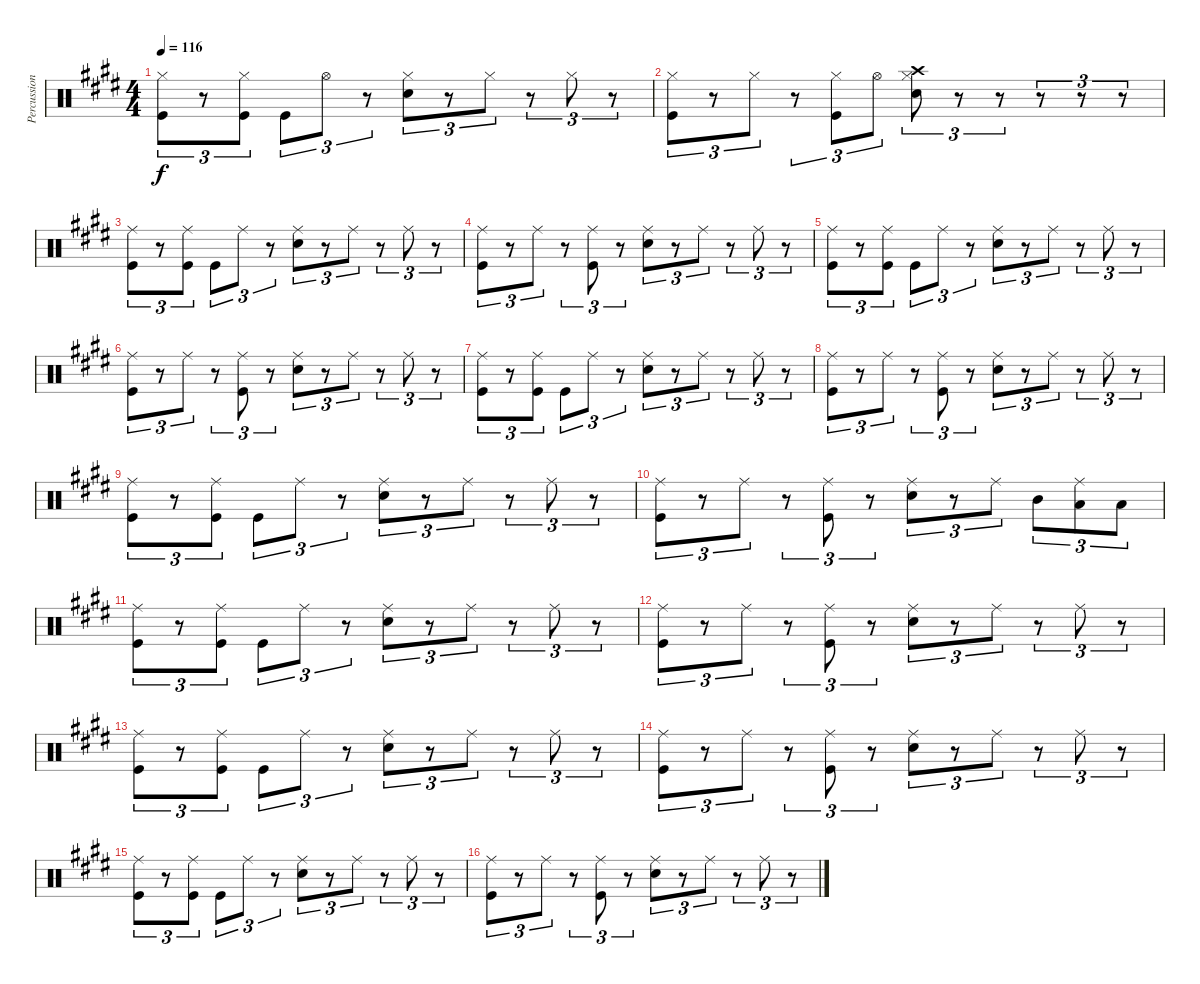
\track ("Percussion" "Percussion") {instrument percussion}
\staff {score}
\articulation defaults
\ts (4 4)
\tempo 116
\clef neutral
\ks c#minor
("Hi-Hat (closed)" "Kick (hit)").8{tu (3 2) dy f} r.8{tu (3 2)} ("Hi-Hat (closed)" "Kick (hit)").8{tu (3 2)} "Kick (hit)".8{tu (3 2)} "Hi-Hat (open)".8{tu (3 2)} r.8{tu (3 2)} ("Snare (hit) 2" "Hi-Hat (closed)").8{tu (3 2)} r.8{tu (3 2)} "Hi-Hat (closed)".8{tu (3 2)} r.8{tu (3 2)} "Hi-Hat (closed)".8{tu (3 2)} r.8{tu (3 2)} |
("Hi-Hat (closed)" "Kick (hit)").8{tu (3 2)} r.8{tu (3 2)} "Hi-Hat (closed)".8{tu (3 2)} r.8{tu (3 2)} ("Hi-Hat (closed)" "Kick (hit)").8{tu (3 2)} "Hi-Hat (open)".8{tu (3 2)} ("Crash high (hit)" "Snare (hit) 2" "Hi-Hat (closed)").8{tu (3 2)} r.8{tu (3 2)} r.8{tu (3 2)} r.8{tu (3 2)} r.8{tu (3 2)} r.8{tu (3 2)} |
("Ride (middle)" "Kick (hit)").8{tu (3 2)} r.8{tu (3 2)} ("Ride (middle)" "Kick (hit)").8{tu (3 2)} "Kick (hit)".8{tu (3 2)} "Ride (middle)".8{tu (3 2)} r.8{tu (3 2)} ("Snare (hit) 2" "Ride (middle)").8{tu (3 2)} r.8{tu (3 2)} "Ride (middle)".8{tu (3 2)} r.8{tu (3 2)} "Ride (middle)".8{tu (3 2)} r.8{tu (3 2)} |
("Ride (middle)" "Kick (hit)").8{tu (3 2)} r.8{tu (3 2)} "Ride (middle)".8{tu (3 2)} r.8{tu (3 2)} ("Ride (middle)" "Kick (hit)").8{tu (3 2)} r.8{tu (3 2)} ("Snare (hit) 2" "Ride (middle)").8{tu (3 2)} r.8{tu (3 2)} "Ride (middle)".8{tu (3 2)} r.8{tu (3 2)} "Ride (middle)".8{tu (3 2)} r.8{tu (3 2)} |
("Ride (middle)" "Kick (hit)").8{tu (3 2)} r.8{tu (3 2)} ("Ride (middle)" "Kick (hit)").8{tu (3 2)} "Kick (hit)".8{tu (3 2)} "Ride (middle)".8{tu (3 2)} r.8{tu (3 2)} ("Snare (hit) 2" "Ride (middle)").8{tu (3 2)} r.8{tu (3 2)} "Ride (middle)".8{tu (3 2)} r.8{tu (3 2)} "Ride (middle)".8{tu (3 2)} r.8{tu (3 2)} |
("Ride (middle)" "Kick (hit)").8{tu (3 2)} r.8{tu (3 2)} "Ride (middle)".8{tu (3 2)} r.8{tu (3 2)} ("Ride (middle)" "Kick (hit)").8{tu (3 2)} r.8{tu (3 2)} ("Snare (hit) 2" "Ride (middle)").8{tu (3 2)} r.8{tu (3 2)} "Ride (middle)".8{tu (3 2)} r.8{tu (3 2)} "Ride (middle)".8{tu (3 2)} r.8{tu (3 2)} |
("Ride (middle)" "Kick (hit)").8{tu (3 2)} r.8{tu (3 2)} ("Ride (middle)" "Kick (hit)").8{tu (3 2)} "Kick (hit)".8{tu (3 2)} "Ride (middle)".8{tu (3 2)} r.8{tu (3 2)} ("Snare (hit) 2" "Ride (middle)").8{tu (3 2)} r.8{tu (3 2)} "Ride (middle)".8{tu (3 2)} r.8{tu (3 2)} "Ride (middle)".8{tu (3 2)} r.8{tu (3 2)} |
("Ride (middle)" "Kick (hit)").8{tu (3 2)} r.8{tu (3 2)} "Ride (middle)".8{tu (3 2)} r.8{tu (3 2)} ("Ride (middle)" "Kick (hit)").8{tu (3 2)} r.8{tu (3 2)} ("Snare (hit) 2" "Ride (middle)").8{tu (3 2)} r.8{tu (3 2)} "Ride (middle)".8{tu (3 2)} r.8{tu (3 2)} "Ride (middle)".8{tu (3 2)} r.8{tu (3 2)} |
("Ride (middle)" "Kick (hit)").8{tu (3 2)} r.8{tu (3 2)} ("Ride (middle)" "Kick (hit)").8{tu (3 2)} "Kick (hit)".8{tu (3 2)} "Ride (middle)".8{tu (3 2)} r.8{tu (3 2)} ("Snare (hit) 2" "Ride (middle)").8{tu (3 2)} r.8{tu (3 2)} "Ride (middle)".8{tu (3 2)} r.8{tu (3 2)} "Ride (middle)".8{tu (3 2)} r.8{tu (3 2)} |
("Ride (middle)" "Kick (hit)").8{tu (3 2)} r.8{tu (3 2)} "Ride (middle)".8{tu (3 2)} r.8{tu (3 2)} ("Ride (middle)" "Kick (hit)").8{tu (3 2)} r.8{tu (3 2)} ("Snare (hit) 2" "Ride (middle)").8{tu (3 2)} r.8{tu (3 2)} "Ride (middle)".8{tu (3 2)} "Mid Tom (hit)".8{tu (3 2)} ("Low Tom (hit)" "Ride (middle)").8{tu (3 2)} "Low Floor Tom (hit)".8{tu (3 2)} |
("Ride (middle)" "Kick (hit)").8{tu (3 2)} r.8{tu (3 2)} ("Ride (middle)" "Kick (hit)").8{tu (3 2)} "Kick (hit)".8{tu (3 2)} "Ride (middle)".8{tu (3 2)} r.8{tu (3 2)} ("Snare (hit) 2" "Ride (middle)").8{tu (3 2)} r.8{tu (3 2)} "Ride (middle)".8{tu (3 2)} r.8{tu (3 2)} "Ride (middle)".8{tu (3 2)} r.8{tu (3 2)} |
("Ride (middle)" "Kick (hit)").8{tu (3 2)} r.8{tu (3 2)} "Ride (middle)".8{tu (3 2)} r.8{tu (3 2)} ("Ride (middle)" "Kick (hit)").8{tu (3 2)} r.8{tu (3 2)} ("Snare (hit) 2" "Ride (middle)").8{tu (3 2)} r.8{tu (3 2)} "Ride (middle)".8{tu (3 2)} r.8{tu (3 2)} "Ride (middle)".8{tu (3 2)} r.8{tu (3 2)} |
("Ride (middle)" "Kick (hit)").8{tu (3 2)} r.8{tu (3 2)} ("Ride (middle)" "Kick (hit)").8{tu (3 2)} "Kick (hit)".8{tu (3 2)} "Ride (middle)".8{tu (3 2)} r.8{tu (3 2)} ("Snare (hit) 2" "Ride (middle)").8{tu (3 2)} r.8{tu (3 2)} "Ride (middle)".8{tu (3 2)} r.8{tu (3 2)} "Ride (middle)".8{tu (3 2)} r.8{tu (3 2)} |
("Ride (middle)" "Kick (hit)").8{tu (3 2)} r.8{tu (3 2)} "Ride (middle)".8{tu (3 2)} r.8{tu (3 2)} ("Ride (middle)" "Kick (hit)").8{tu (3 2)} r.8{tu (3 2)} ("Snare (hit) 2" "Ride (middle)").8{tu (3 2)} r.8{tu (3 2)} "Ride (middle)".8{tu (3 2)} r.8{tu (3 2)} "Ride (middle)".8{tu (3 2)} r.8{tu (3 2)} |
("Ride (middle)" "Kick (hit)").8{tu (3 2)} r.8{tu (3 2)} ("Ride (middle)" "Kick (hit)").8{tu (3 2)} "Kick (hit)".8{tu (3 2)} "Ride (middle)".8{tu (3 2)} r.8{tu (3 2)} ("Snare (hit) 2" "Ride (middle)").8{tu (3 2)} r.8{tu (3 2)} "Ride (middle)".8{tu (3 2)} r.8{tu (3 2)} "Ride (middle)".8{tu (3 2)} r.8{tu (3 2)} |
("Ride (middle)" "Kick (hit)").8{tu (3 2)} r.8{tu (3 2)} "Ride (middle)".8{tu (3 2)} r.8{tu (3 2)} ("Ride (middle)" "Kick (hit)").8{tu (3 2)} r.8{tu (3 2)} ("Snare (hit) 2" "Ride (middle)").8{tu (3 2)} r.8{tu (3 2)} "Ride (middle)".8{tu (3 2)} r.8{tu (3 2)} "Ride (middle)".8{tu (3 2)} r.8{tu (3 2)}
